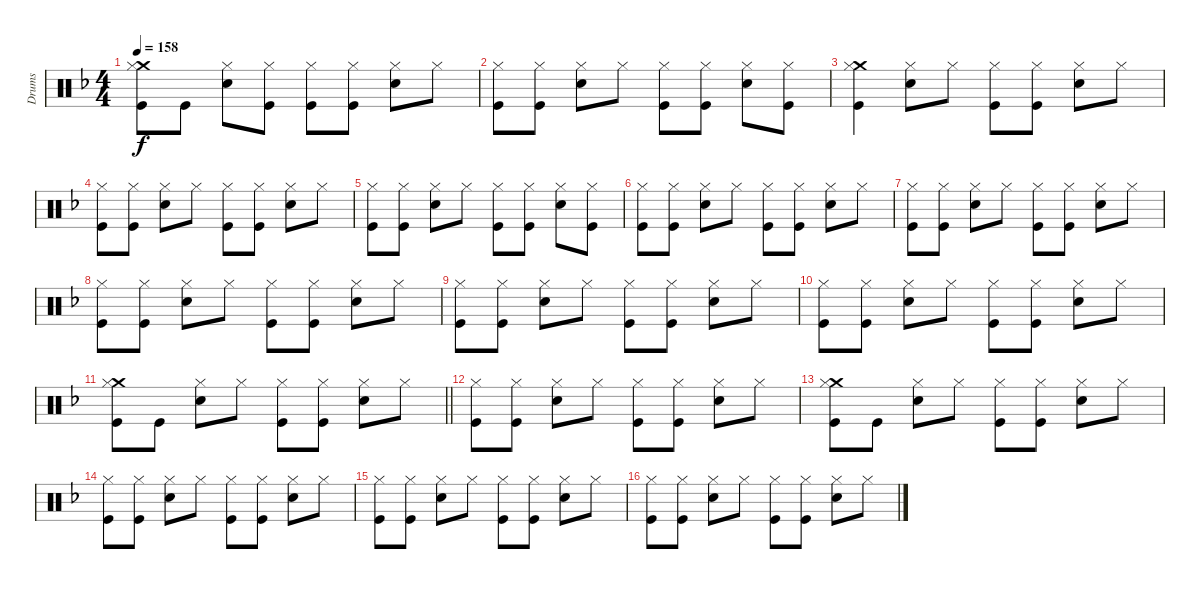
\track ("Drums" "Drums") {instrument percussion}
\staff {score}
\articulation defaults
\ts (4 4)
\tempo 158
\clef neutral
\ks f
("Crash medium (hit)" "Hi-Hat (closed)" "Kick (hit)").8{dy f} "Kick (hit)".8 ("Hi-Hat (closed)" "Snare (hit) 2").8 ("Hi-Hat (closed)" "Kick (hit)").8 ("Hi-Hat (closed)" "Kick (hit)").8 ("Hi-Hat (closed)" "Kick (hit)").8 ("Hi-Hat (closed)" "Snare (hit) 2").8 "Hi-Hat (closed)".8 |
("Hi-Hat (closed)" "Kick (hit)").8 ("Hi-Hat (closed)" "Kick (hit)").8 ("Hi-Hat (closed)" "Snare (hit) 2").8 "Hi-Hat (closed)".8 ("Hi-Hat (closed)" "Kick (hit)").8 ("Hi-Hat (closed)" "Kick (hit)").8 ("Hi-Hat (closed)" "Snare (hit) 2").8 ("Hi-Hat (closed)" "Kick (hit)").8 |
("Crash medium (hit)" "Hi-Hat (closed)" "Kick (hit)").4 ("Hi-Hat (closed)" "Snare (hit) 2").8 "Hi-Hat (closed)".8 ("Hi-Hat (closed)" "Kick (hit)").8 ("Hi-Hat (closed)" "Kick (hit)").8 ("Hi-Hat (closed)" "Snare (hit) 2").8 "Hi-Hat (closed)".8 |
("Hi-Hat (closed)" "Kick (hit)").8 ("Hi-Hat (closed)" "Kick (hit)").8 ("Hi-Hat (closed)" "Snare (hit) 2").8 "Hi-Hat (closed)".8 ("Hi-Hat (closed)" "Kick (hit)").8 ("Hi-Hat (closed)" "Kick (hit)").8 ("Hi-Hat (closed)" "Snare (hit) 2").8 "Hi-Hat (closed)".8 |
("Hi-Hat (closed)" "Kick (hit)").8 ("Hi-Hat (closed)" "Kick (hit)").8 ("Hi-Hat (closed)" "Snare (hit) 2").8 "Hi-Hat (closed)".8 ("Hi-Hat (closed)" "Kick (hit)").8 ("Hi-Hat (closed)" "Kick (hit)").8 ("Hi-Hat (closed)" "Snare (hit) 2").8 ("Hi-Hat (closed)" "Kick (hit)").8 |
("Hi-Hat (closed)" "Kick (hit)").8 ("Hi-Hat (closed)" "Kick (hit)").8 ("Hi-Hat (closed)" "Snare (hit) 2").8 "Hi-Hat (closed)".8 ("Hi-Hat (closed)" "Kick (hit)").8 ("Hi-Hat (closed)" "Kick (hit)").8 ("Hi-Hat (closed)" "Snare (hit) 2").8 "Hi-Hat (closed)".8 |
("Hi-Hat (closed)" "Kick (hit)").8 ("Hi-Hat (closed)" "Kick (hit)").8 ("Hi-Hat (closed)" "Snare (hit) 2").8 "Hi-Hat (closed)".8 ("Hi-Hat (closed)" "Kick (hit)").8 ("Hi-Hat (closed)" "Kick (hit)").8 ("Hi-Hat (closed)" "Snare (hit) 2").8 "Hi-Hat (closed)".8 |
("Hi-Hat (closed)" "Kick (hit)").8 ("Hi-Hat (closed)" "Kick (hit)").8 ("Hi-Hat (closed)" "Snare (hit) 2").8 "Hi-Hat (closed)".8 ("Hi-Hat (closed)" "Kick (hit)").8 ("Hi-Hat (closed)" "Kick (hit)").8 ("Hi-Hat (closed)" "Snare (hit) 2").8 "Hi-Hat (closed)".8 |
("Hi-Hat (closed)" "Kick (hit)").8 ("Hi-Hat (closed)" "Kick (hit)").8 ("Hi-Hat (closed)" "Snare (hit) 2").8 "Hi-Hat (closed)".8 ("Hi-Hat (closed)" "Kick (hit)").8 ("Hi-Hat (closed)" "Kick (hit)").8 ("Hi-Hat (closed)" "Snare (hit) 2").8 "Hi-Hat (closed)".8 |
("Hi-Hat (closed)" "Kick (hit)").8 ("Hi-Hat (closed)" "Kick (hit)").8 ("Hi-Hat (closed)" "Snare (hit) 2").8 "Hi-Hat (closed)".8 ("Hi-Hat (closed)" "Kick (hit)").8 ("Hi-Hat (closed)" "Kick (hit)").8 ("Hi-Hat (closed)" "Snare (hit) 2").8 "Hi-Hat (closed)".8 |
\barLineRight lightlight
("Crash medium (hit)" "Hi-Hat (closed)" "Kick (hit)").8 "Kick (hit)".8 ("Hi-Hat (closed)" "Snare (hit) 2").8 "Hi-Hat (closed)".8 ("Hi-Hat (closed)" "Kick (hit)").8 ("Hi-Hat (closed)" "Kick (hit)").8 ("Hi-Hat (closed)" "Snare (hit) 2").8 "Hi-Hat (closed)".8 |
\section ("" "")
("Hi-Hat (closed)" "Kick (hit)").8 ("Hi-Hat (closed)" "Kick (hit)").8 ("Hi-Hat (closed)" "Snare (hit) 2").8 "Hi-Hat (closed)".8 ("Hi-Hat (closed)" "Kick (hit)").8 ("Hi-Hat (closed)" "Kick (hit)").8 ("Hi-Hat (closed)" "Snare (hit) 2").8 "Hi-Hat (closed)".8 |
("Crash medium (hit)" "Hi-Hat (closed)" "Kick (hit)").8 "Kick (hit)".8 ("Hi-Hat (closed)" "Snare (hit) 2").8 "Hi-Hat (closed)".8 ("Hi-Hat (closed)" "Kick (hit)").8 ("Hi-Hat (closed)" "Kick (hit)").8 ("Hi-Hat (closed)" "Snare (hit) 2").8 "Hi-Hat (closed)".8 |
("Hi-Hat (closed)" "Kick (hit)").8 ("Hi-Hat (closed)" "Kick (hit)").8 ("Hi-Hat (closed)" "Snare (hit) 2").8 "Hi-Hat (closed)".8 ("Hi-Hat (closed)" "Kick (hit)").8 ("Hi-Hat (closed)" "Kick (hit)").8 ("Hi-Hat (closed)" "Snare (hit) 2").8 "Hi-Hat (closed)".8 |
("Hi-Hat (closed)" "Kick (hit)").8 ("Hi-Hat (closed)" "Kick (hit)").8 ("Hi-Hat (closed)" "Snare (hit) 2").8 "Hi-Hat (closed)".8 ("Hi-Hat (closed)" "Kick (hit)").8 ("Hi-Hat (closed)" "Kick (hit)").8 ("Hi-Hat (closed)" "Snare (hit) 2").8 "Hi-Hat (closed)".8 |
("Hi-Hat (closed)" "Kick (hit)").8 ("Hi-Hat (closed)" "Kick (hit)").8 ("Hi-Hat (closed)" "Snare (hit) 2").8 "Hi-Hat (closed)".8 ("Hi-Hat (closed)" "Kick (hit)").8 ("Hi-Hat (closed)" "Kick (hit)").8 ("Hi-Hat (closed)" "Snare (hit) 2").8 "Hi-Hat (closed)".8
